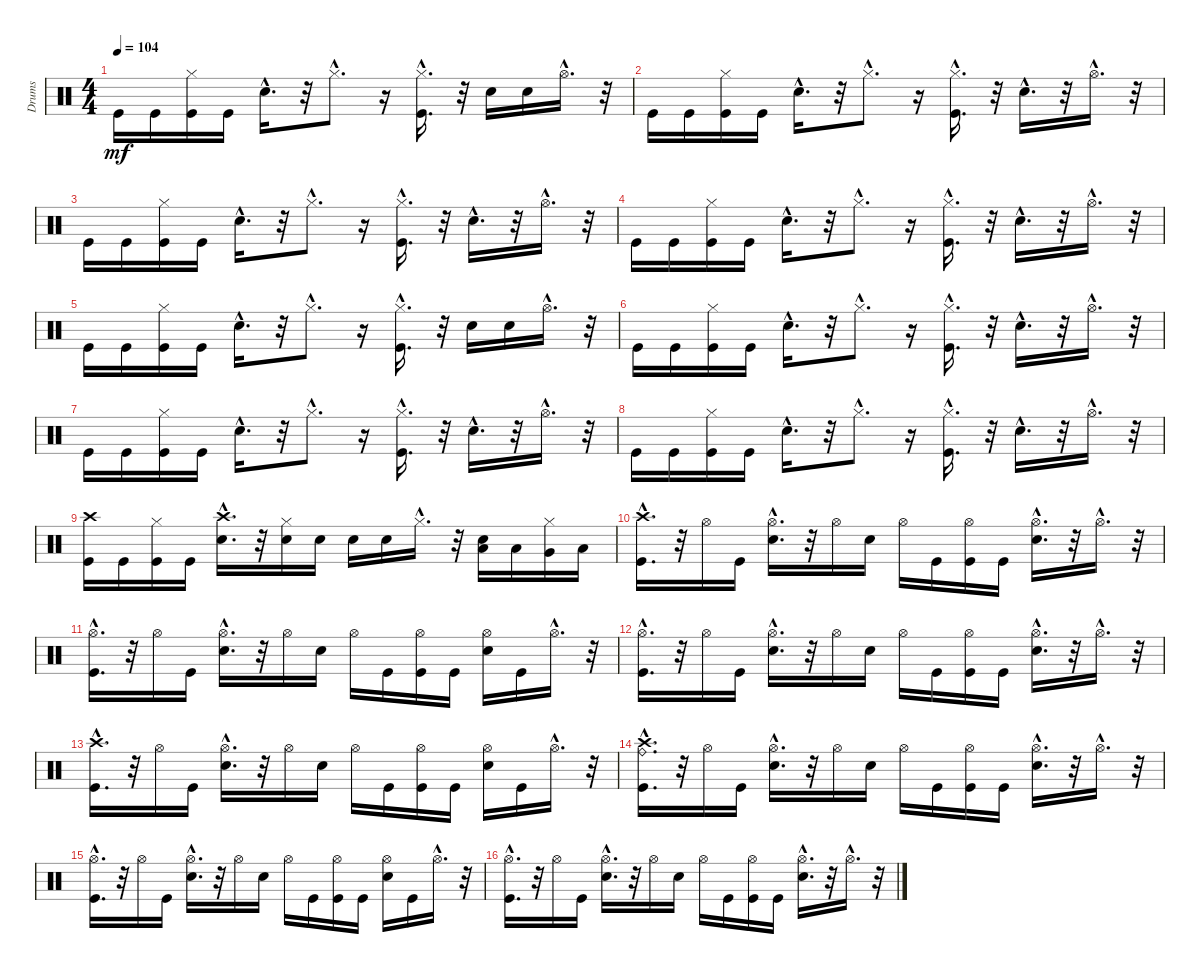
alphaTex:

\track ("Drums" "Drums") {instrument percussion}
\staff {score}
\articulation defaults
\ts (4 4)
\tempo 104
\clef neutral
\ks c "Kick (hit)".16{dy mf} "Kick (hit)".16
("Kick (hit)" "Hi-Hat (closed)").16 "Kick (hit)".16 "Electric Snare (hit)"{hac}.16{d} r.32 "Hi-Hat (closed)"{hac}.8{d} r.16 ("Kick (hit)"{hac} "Hi-Hat (closed)"{hac}).16{d} r.32 "Electric Snare (hit)".16 "Electric Snare (hit)".16 "Hi-Hat (open)"{hac}.16{d} r.32 |
"Kick (hit)".16 "Kick (hit)".16 ("Hi-Hat (closed)" "Kick (hit)").16 "Kick (hit)".16 "Electric Snare (hit)"{hac}.16{d} r.32 "Hi-Hat (closed)"{hac}.8{d} r.16 ("Hi-Hat (closed)"{hac} "Kick (hit)"{hac}).16{d} r.32 "Electric Snare (hit)"{hac}.16{d} r.32 "Hi-Hat (open)"{hac}.16{d} r.32 |
"Kick (hit)".16 "Kick (hit)".16 ("Hi-Hat (closed)" "Kick (hit)").16 "Kick (hit)".16 "Electric Snare (hit)"{hac}.16{d} r.32 "Hi-Hat (closed)"{hac}.8{d} r.16 ("Hi-Hat (closed)"{hac} "Kick (hit)"{hac}).16{d} r.32 "Electric Snare (hit)"{hac}.16{d} r.32 "Hi-Hat (open)"{hac}.16{d} r.32 |
"Kick (hit)".16 "Kick (hit)".16 ("Hi-Hat (closed)" "Kick (hit)").16 "Kick (hit)".16 "Electric Snare (hit)"{hac}.16{d} r.32 "Hi-Hat (closed)"{hac}.8{d} r.16 ("Hi-Hat (closed)"{hac} "Kick (hit)"{hac}).16{d} r.32 "Electric Snare (hit)"{hac}.16{d} r.32 "Hi-Hat (open)"{hac}.16{d} r.32 |
"Kick (hit)".16 "Kick (hit)".16 ("Hi-Hat (closed)" "Kick (hit)").16 "Kick (hit)".16 "Electric Snare (hit)"{hac}.16{d} r.32 "Hi-Hat (closed)"{hac}.8{d} r.16 ("Kick (hit)"{hac} "Hi-Hat (closed)"{hac}).16{d} r.32 "Electric Snare (hit)".16 "Electric Snare (hit)".16 "Hi-Hat (open)"{hac}.16{d} r.32 |
"Kick (hit)".16 "Kick (hit)".16 ("Kick (hit)" "Hi-Hat (closed)").16 "Kick (hit)".16 "Electric Snare (hit)"{hac}.16{d} r.32 "Hi-Hat (closed)"{hac}.8{d} r.16 ("Hi-Hat (closed)"{hac} "Kick (hit)"{hac}).16{d} r.32 "Electric Snare (hit)"{hac}.16{d} r.32 "Hi-Hat (open)"{hac}.16{d} r.32 |
"Kick (hit)".16 "Kick (hit)".16 ("Hi-Hat (closed)" "Kick (hit)").16 "Kick (hit)".16 "Electric Snare (hit)"{hac}.16{d} r.32 "Hi-Hat (closed)"{hac}.8{d} r.16 ("Hi-Hat (closed)"{hac} "Kick (hit)"{hac}).16{d} r.32 "Electric Snare (hit)"{hac}.16{d} r.32 "Hi-Hat (open)"{hac}.16{d} r.32 |
"Kick (hit)".16 "Kick (hit)".16 ("Hi-Hat (closed)" "Kick (hit)").16 "Kick (hit)".16 "Electric Snare (hit)"{hac}.16{d} r.32 "Hi-Hat (closed)"{hac}.8{d} r.16 ("Kick (hit)"{hac} "Hi-Hat (closed)"{hac}).16{d} r.32 "Electric Snare (hit)"{hac}.16{d} r.32 "Hi-Hat (open)"{hac}.16{d} r.32 |
("Kick (hit)" "Crash high (hit)").16 "Kick (hit)".16 ("Hi-Hat (closed)" "Kick (hit)").16 "Kick (hit)".16 ("Electric Snare (hit)"{hac} "Crash high (hit)"{hac}).16{d} r.32 ("Hi-Hat (closed)" "Electric Snare (hit)").16 "Electric Snare (hit)".16 "Electric Snare (hit)".16 "Electric Snare (hit)".16 "Hi-Hat (closed)"{hac}.16{d} r.32 ("Low Tom (hit)" "Electric Snare (hit)").16 "Low Tom (hit)".16 ("Hi-Hat (closed)" "Very Low Tom (hit)").16 "Low Floor Tom (hit)".16 |
("Crash high (hit)"{hac} "Kick (hit)"{hac}).16{d} r.32 "Hi-Hat (open)".16 "Kick (hit)".16 ("Electric Snare (hit)"{hac} "Hi-Hat (open)"{hac}).16{d} r.32 "Hi-Hat (open)".16 "Electric Snare (hit)".16 "Hi-Hat (open)".16 "Kick (hit)".16 ("Hi-Hat (open)" "Kick (hit)").16 "Kick (hit)".16 ("Electric Snare (hit)"{hac} "Hi-Hat (open)"{hac}).16{d} r.32 "Hi-Hat (open)"{hac}.16{d} r.32 |
("Hi-Hat (open)"{hac} "Kick (hit)"{hac}).16{d} r.32 "Hi-Hat (open)".16 "Kick (hit)".16 ("Electric Snare (hit)"{hac} "Hi-Hat (open)"{hac}).16{d} r.32 "Hi-Hat (open)".16 "Electric Snare (hit)".16 "Hi-Hat (open)".16 "Kick (hit)".16 ("Kick (hit)" "Hi-Hat (open)").16 "Kick (hit)".16 ("Hi-Hat (open)" "Electric Snare (hit)").16 "Kick (hit)".16 "Hi-Hat (open)"{hac}.16{d} r.32 |
("Hi-Hat (open)"{hac} "Kick (hit)"{hac}).16{d} r.32 "Hi-Hat (open)".16 "Kick (hit)".16 ("Electric Snare (hit)"{hac} "Hi-Hat (open)"{hac}).16{d} r.32 "Hi-Hat (open)".16 "Electric Snare (hit)".16 "Hi-Hat (open)".16 "Kick (hit)".16 ("Hi-Hat (open)" "Kick (hit)").16 "Kick (hit)".16 ("Hi-Hat (open)"{hac} "Electric Snare (hit)"{hac}).16{d} r.32 "Hi-Hat (open)"{hac}.16{d} r.32 |
("Crash high (hit)"{hac} "Kick (hit)"{hac}).16{d} r.32 "Hi-Hat (open)".16 "Kick (hit)".16 ("Electric Snare (hit)"{hac} "Hi-Hat (open)"{hac}).16{d} r.32 "Hi-Hat (open)".16 "Electric Snare (hit)".16 "Hi-Hat (open)".16 "Kick (hit)".16 ("Hi-Hat (open)" "Kick (hit)").16 "Kick (hit)".16 ("Hi-Hat (open)" "Electric Snare (hit)").16 "Kick (hit)".16 "Hi-Hat (open)"{hac}.16{d} r.32 |
("Ride (bell)"{hac} "Crash high (hit)"{hac} "Kick (hit)"{hac}).16{d} r.32 "Hi-Hat (open)".16 "Kick (hit)".16 ("Hi-Hat (open)"{hac} "Electric Snare (hit)"{hac}).16{d} r.32 "Hi-Hat (open)".16 "Electric Snare (hit)".16 "Hi-Hat (open)".16 "Kick (hit)".16 ("Kick (hit)" "Hi-Hat (open)").16 "Kick (hit)".16 ("Hi-Hat (open)"{hac} "Electric Snare (hit)"{hac}).16{d} r.32 "Hi-Hat (open)"{hac}.16{d} r.32 |
("Kick (hit)"{hac} "Hi-Hat (open)"{hac}).16{d} r.32 "Hi-Hat (open)".16 "Kick (hit)".16 ("Hi-Hat (open)"{hac} "Electric Snare (hit)"{hac}).16{d} r.32 "Hi-Hat (open)".16 "Electric Snare (hit)".16 "Hi-Hat (open)".16 "Kick (hit)".16 ("Kick (hit)" "Hi-Hat (open)").16 "Kick (hit)".16 ("Hi-Hat (open)" "Electric Snare (hit)").16 "Kick (hit)".16 "Hi-Hat (open)"{hac}.16{d} r.32 |
("Hi-Hat (open)"{hac} "Kick (hit)"{hac}).16{d} r.32 "Hi-Hat (open)".16 "Kick (hit)".16 ("Electric Snare (hit)"{hac} "Hi-Hat (open)"{hac}).16{d} r.32 "Hi-Hat (open)".16 "Electric Snare (hit)".16 "Hi-Hat (open)".16 "Kick (hit)".16 ("Kick (hit)" "Hi-Hat (open)").16 "Kick (hit)".16 ("Hi-Hat (open)"{hac} "Electric Snare (hit)"{hac}).16{d} r.32 "Hi-Hat (open)"{hac}.16{d} r.32
